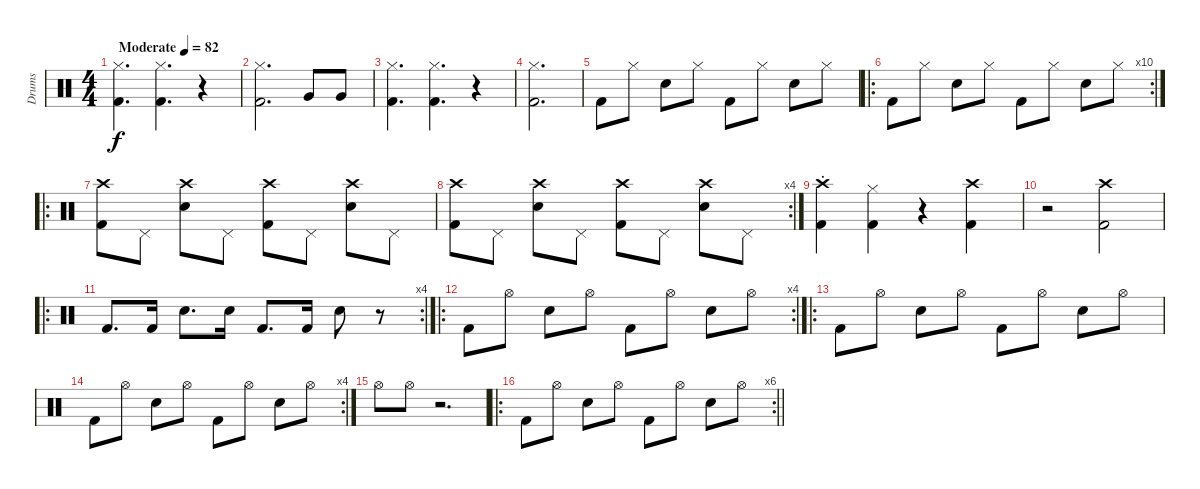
\track ("Drums" "Drums") {instrument percussion}
\staff {score}
\articulation defaults
\ts (4 4)
\tempo (82 "Moderate")
\clef neutral
\ks c
("Kick (hit) 2" "Hi-Hat (closed)").4{d dy f} ("Kick (hit) 2" "Hi-Hat (closed)").4{d} r.4 |
("Kick (hit) 2" "Hi-Hat (closed)").2{d} "Very Low Tom (hit)".8 "Very Low Tom (hit)".8 |
("Kick (hit) 2" "Hi-Hat (closed)").4{d} ("Kick (hit) 2" "Hi-Hat (closed)").4{d} r.4 |
("Kick (hit) 2" "Hi-Hat (closed)").2{d} |
"Kick (hit) 2".8 "Hi-Hat (closed)".8 "Electric Snare (hit)".8 "Hi-Hat (closed)".8 "Kick (hit) 2".8 "Hi-Hat (closed)".8 "Electric Snare (hit)".8 "Hi-Hat (closed)".8 |
\ro
\rc 10 "Kick (hit) 2".8 "Hi-Hat (closed)".8 "Electric Snare (hit)".8 "Hi-Hat (closed)".8 "Kick (hit) 2".8 "Hi-Hat (closed)".8 "Electric Snare (hit)".8 "Hi-Hat (closed)".8
|
\ro
("Kick (hit) 2" "Crash high (hit)").8 "Pedal Hi-Hat (hit)".8 ("Electric Snare (hit)" "Crash high (hit)").8 "Pedal Hi-Hat (hit)".8 ("Kick (hit) 2" "Crash high (hit)").8 "Pedal Hi-Hat (hit)".8 ("Electric Snare (hit)" "Crash high (hit)").8 "Pedal Hi-Hat (hit)".8 |
\rc 4
("Kick (hit) 2" "Crash high (hit)").8 "Pedal Hi-Hat (hit)".8 ("Electric Snare (hit)" "Crash high (hit)").8 "Pedal Hi-Hat (hit)".8 ("Kick (hit) 2" "Crash high (hit)").8 "Pedal Hi-Hat (hit)".8 ("Electric Snare (hit)" "Crash high (hit)").8 "Pedal Hi-Hat (hit)".8 |
("Kick (hit) 2"{st} "Crash high (hit)"{st}).4 ("Kick (hit) 2" "Hi-Hat (closed)").4 r.4 ("Kick (hit) 2" "Crash high (hit)").4 |
r.2 ("Kick (hit) 2" "Crash high (hit)").2 |
\ro
\rc 4 "Kick (hit) 2".8{d} "Kick (hit) 2".16 "Electric Snare (hit)".8{d} "Electric Snare (hit)".16 "Kick (hit) 2".8{d} "Kick (hit) 2".16 "Electric Snare (hit)".8
r.8 |
\ro
\rc 4 "Kick (hit) 2".8 "Hi-Hat (open)".8 "Electric Snare (hit)".8 "Hi-Hat (open)".8 "Kick (hit) 2".8 "Hi-Hat (open)".8 "Electric Snare (hit)".8 "Hi-Hat (open)".8
|
\ro "Kick (hit) 2".8 "Hi-Hat (open)".8 "Electric Snare (hit)".8 "Hi-Hat (open)".8 "Kick (hit) 2".8 "Hi-Hat (open)".8 "Electric Snare (hit)".8 "Hi-Hat (open)".8
|
\rc 4 "Kick (hit) 2".8 "Hi-Hat (open)".8 "Electric Snare (hit)".8 "Hi-Hat (open)".8 "Kick (hit) 2".8 "Hi-Hat (open)".8 "Electric Snare (hit)".8 "Hi-Hat (open)".8
|
"Hi-Hat (open)".8 "Hi-Hat (open)".8 r.2{d} |
\ro
\rc 6
\barLineRight lightlight "Kick (hit) 2".8 "Hi-Hat (open)".8 "Electric Snare (hit)".8 "Hi-Hat (open)".8 "Kick (hit) 2".8 "Hi-Hat (open)".8 "Electric Snare (hit)".8 "Hi-Hat (open)".8
